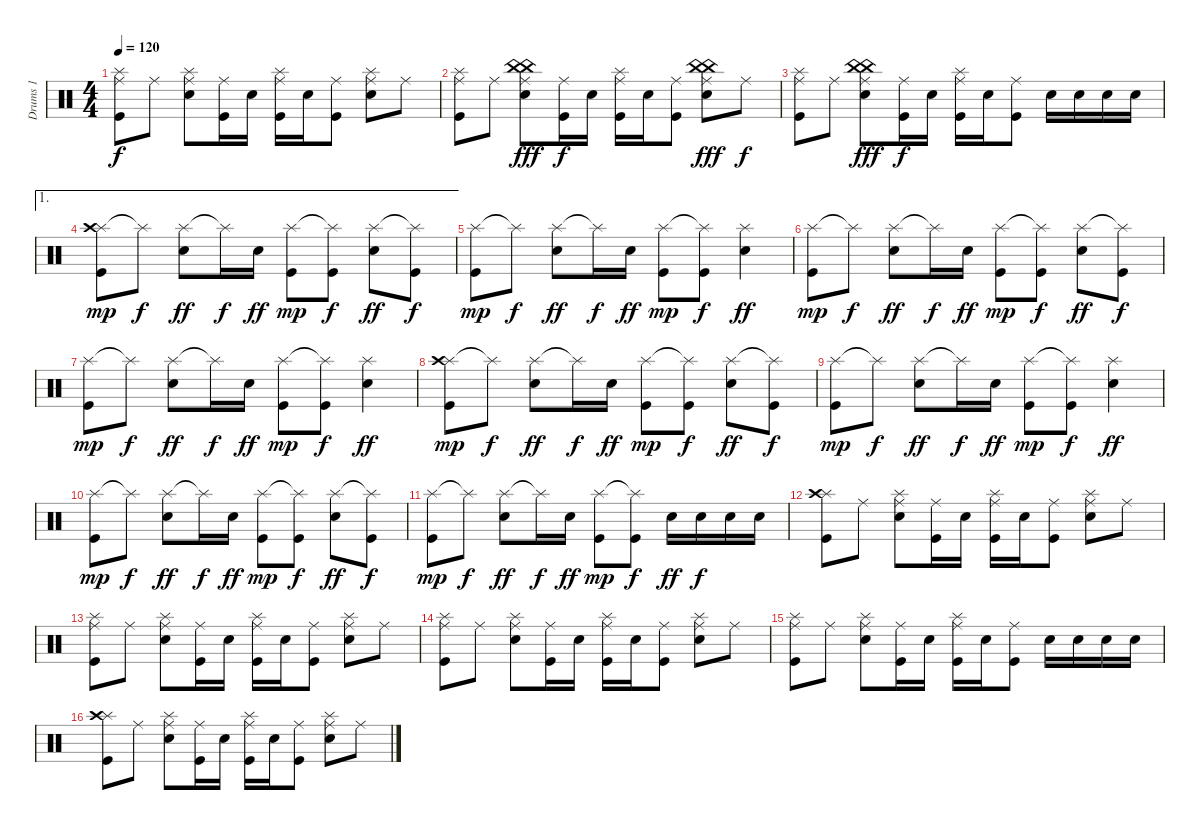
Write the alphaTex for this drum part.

\track ("Drums 1" "Drums 1") {instrument percussion}
\staff {score}
\articulation defaults
\ts (4 4)
\tempo 120
\clef neutral
\ks c
("Splash (hit)" "Kick (hit)" "Ride (middle)").8{dy f} "Ride (middle)".8 ("Splash (hit)" "Electric Snare (hit)" "Ride (middle)").8 ("Kick (hit)" "Ride (middle)").16 "Electric Snare (hit)".16 ("Splash (hit)" "Kick (hit)" "Ride (middle)").16 "Electric Snare (hit)".16 ("Kick (hit)" "Ride (middle)").8 ("Splash (hit)" "Electric Snare (hit)" "Ride (middle)").8 "Ride (middle)".8 |
("Splash (hit)" "Kick (hit)" "Ride (middle)").8 "Ride (middle)".8 ("China (hit)" "Electric Snare (hit)" "Ride (middle)" "China (hit)").8{dy fff} ("Kick (hit)" "Ride (middle)").16{dy f} "Electric Snare (hit)".16 ("Splash (hit)" "Kick (hit)" "Ride (middle)").16 "Electric Snare (hit)".16 ("Kick (hit)" "Ride (middle)").8 ("China (hit)" "Electric Snare (hit)" "Ride (middle)" "China (hit)").8{dy fff} "Ride (middle)".8{dy f} |
("Splash (hit)" "Kick (hit)" "Ride (middle)").8 "Ride (middle)".8 ("China (hit)" "Electric Snare (hit)" "Ride (middle)" "China (hit)").8{dy fff} ("Kick (hit)" "Ride (middle)").16{dy f} "Electric Snare (hit)".16 ("Splash (hit)" "Kick (hit)" "Ride (middle)").16 "Electric Snare (hit)".16 ("Kick (hit)" "Ride (middle)").8 "Electric Snare (hit)".16 "Electric Snare (hit)".16 "Electric Snare (hit)".16 "Electric Snare (hit)".16 |
\ae 1
("Splash (hit)" "Kick (hit)" "Crash high (hit)").8{dy mp} "Splash (hit)"{t}.8{dy f} ("Splash (hit)" "Electric Snare (hit)").8{dy ff} "Splash (hit)"{t}.16{dy f} "Electric Snare (hit)".16{dy ff} ("Splash (hit)" "Kick (hit)").8{dy mp} ("Splash (hit)"{t} "Kick (hit)").8{dy f} ("Splash (hit)" "Electric Snare (hit)").8{dy ff} ("Splash (hit)"{t} "Kick (hit)").8{dy f} |
("Splash (hit)" "Kick (hit)").8{dy mp} "Splash (hit)"{t}.8{dy f} ("Splash (hit)" "Electric Snare (hit)").8{dy ff} "Splash (hit)"{t}.16{dy f} "Electric Snare (hit)".16{dy ff} ("Splash (hit)" "Kick (hit)").8{dy mp} ("Splash (hit)"{t} "Kick (hit)").8{dy f} ("Splash (hit)" "Electric Snare (hit)").4{dy ff} |
("Splash (hit)" "Kick (hit)").8{dy mp} "Splash (hit)"{t}.8{dy f} ("Splash (hit)" "Electric Snare (hit)").8{dy ff} "Splash (hit)"{t}.16{dy f} "Electric Snare (hit)".16{dy ff} ("Splash (hit)" "Kick (hit)").8{dy mp} ("Splash (hit)"{t} "Kick (hit)").8{dy f} ("Splash (hit)" "Electric Snare (hit)").8{dy ff} ("Splash (hit)"{t} "Kick (hit)").8{dy f} |
("Splash (hit)" "Kick (hit)").8{dy mp} "Splash (hit)"{t}.8{dy f} ("Splash (hit)" "Electric Snare (hit)").8{dy ff} "Splash (hit)"{t}.16{dy f} "Electric Snare (hit)".16{dy ff} ("Splash (hit)" "Kick (hit)").8{dy mp} ("Splash (hit)"{t} "Kick (hit)").8{dy f} ("Splash (hit)" "Electric Snare (hit)").4{dy ff} |
("Splash (hit)" "Kick (hit)" "Crash high (hit)").8{dy mp} "Splash (hit)"{t}.8{dy f} ("Splash (hit)" "Electric Snare (hit)").8{dy ff} "Splash (hit)"{t}.16{dy f} "Electric Snare (hit)".16{dy ff} ("Splash (hit)" "Kick (hit)").8{dy mp} ("Splash (hit)"{t} "Kick (hit)").8{dy f} ("Splash (hit)" "Electric Snare (hit)").8{dy ff} ("Splash (hit)"{t} "Kick (hit)").8{dy f} |
("Splash (hit)" "Kick (hit)").8{dy mp} "Splash (hit)"{t}.8{dy f} ("Splash (hit)" "Electric Snare (hit)").8{dy ff} "Splash (hit)"{t}.16{dy f} "Electric Snare (hit)".16{dy ff} ("Splash (hit)" "Kick (hit)").8{dy mp} ("Splash (hit)"{t} "Kick (hit)").8{dy f} ("Splash (hit)" "Electric Snare (hit)").4{dy ff} |
("Splash (hit)" "Kick (hit)").8{dy mp} "Splash (hit)"{t}.8{dy f} ("Splash (hit)" "Electric Snare (hit)").8{dy ff} "Splash (hit)"{t}.16{dy f} "Electric Snare (hit)".16{dy ff} ("Splash (hit)" "Kick (hit)").8{dy mp} ("Splash (hit)"{t} "Kick (hit)").8{dy f} ("Splash (hit)" "Electric Snare (hit)").8{dy ff} ("Splash (hit)"{t} "Kick (hit)").8{dy f} |
("Splash (hit)" "Kick (hit)").8{dy mp} "Splash (hit)"{t}.8{dy f} ("Splash (hit)" "Electric Snare (hit)").8{dy ff} "Splash (hit)"{t}.16{dy f} "Electric Snare (hit)".16{dy ff} ("Splash (hit)" "Kick (hit)").8{dy mp} ("Splash (hit)"{t} "Kick (hit)").8{dy f} "Electric Snare (hit)".16{dy ff} "Electric Snare (hit)".16{dy f} "Electric Snare (hit)".16 "Electric Snare (hit)".16 |
("Splash (hit)" "Kick (hit)" "Crash high (hit)").8 "Ride (middle)".8 ("Splash (hit)" "Electric Snare (hit)" "Ride (middle)").8 ("Kick (hit)" "Ride (middle)").16 "Electric Snare (hit)".16 ("Splash (hit)" "Kick (hit)" "Ride (middle)").16 "Electric Snare (hit)".16 ("Kick (hit)" "Ride (middle)").8 ("Splash (hit)" "Electric Snare (hit)" "Ride (middle)").8 "Ride (middle)".8 |
("Splash (hit)" "Kick (hit)" "Ride (middle)").8 "Ride (middle)".8 ("Splash (hit)" "Electric Snare (hit)" "Ride (middle)").8 ("Kick (hit)" "Ride (middle)").16 "Electric Snare (hit)".16 ("Splash (hit)" "Kick (hit)" "Ride (middle)").16 "Electric Snare (hit)".16 ("Kick (hit)" "Ride (middle)").8 ("Splash (hit)" "Electric Snare (hit)" "Ride (middle)").8 "Ride (middle)".8 |
("Splash (hit)" "Kick (hit)" "Ride (middle)").8 "Ride (middle)".8 ("Splash (hit)" "Electric Snare (hit)" "Ride (middle)").8 ("Kick (hit)" "Ride (middle)").16 "Electric Snare (hit)".16 ("Splash (hit)" "Kick (hit)" "Ride (middle)").16 "Electric Snare (hit)".16 ("Kick (hit)" "Ride (middle)").8 ("Splash (hit)" "Electric Snare (hit)" "Ride (middle)").8 "Ride (middle)".8 |
("Splash (hit)" "Kick (hit)" "Ride (middle)").8 "Ride (middle)".8 ("Splash (hit)" "Electric Snare (hit)" "Ride (middle)").8 ("Kick (hit)" "Ride (middle)").16 "Electric Snare (hit)".16 ("Splash (hit)" "Kick (hit)" "Ride (middle)").16 "Electric Snare (hit)".16 ("Kick (hit)" "Ride (middle)").8 "Electric Snare (hit)".16 "Electric Snare (hit)".16 "Electric Snare (hit)".16 "Electric Snare (hit)".16 |
("Splash (hit)" "Kick (hit)" "Crash high (hit)").8 "Ride (middle)".8 ("Splash (hit)" "Electric Snare (hit)" "Ride (middle)").8 ("Kick (hit)" "Ride (middle)").16 "Electric Snare (hit)".16 ("Splash (hit)" "Kick (hit)" "Ride (middle)").16 "Electric Snare (hit)".16 ("Kick (hit)" "Ride (middle)").8 ("Splash (hit)" "Electric Snare (hit)" "Ride (middle)").8 "Ride (middle)".8
